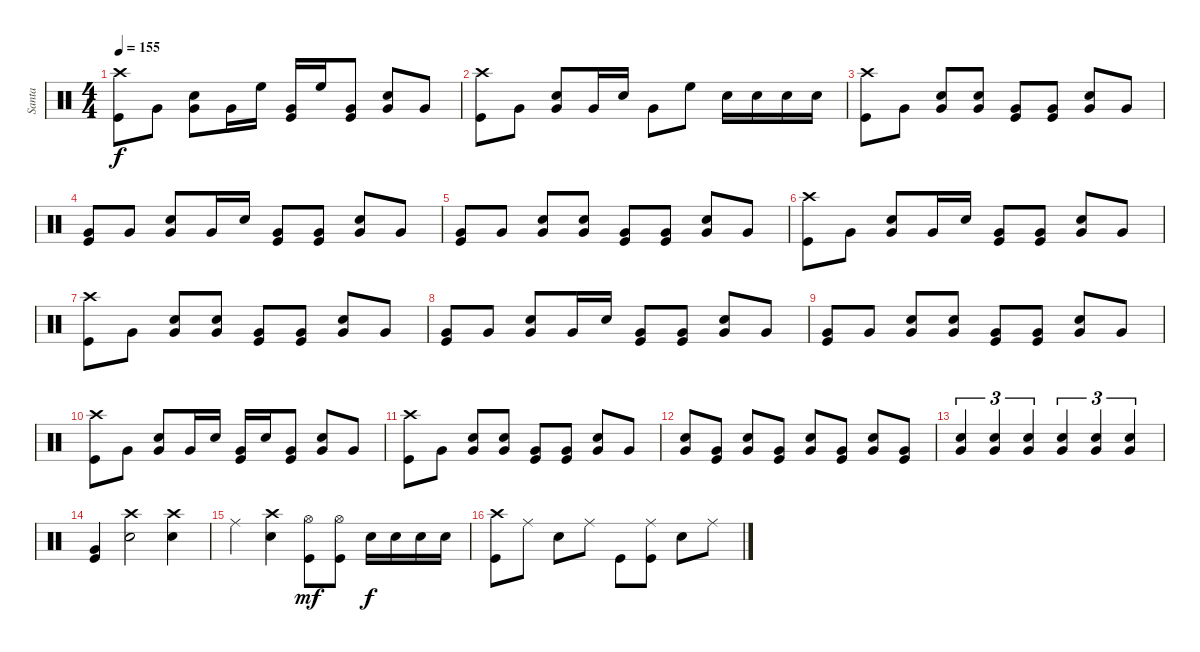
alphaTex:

\track ("Santa" "Santa") {instrument percussion}
\staff {score}
\articulation defaults
\ts (4 4)
\tempo 155
\clef neutral
\ks c
("Kick (hit)" "Crash high (hit)").8{dy f} "Very Low Tom (hit)".8 ("Very Low Tom (hit)" "Snare (hit) 2").8 "Very Low Tom (hit)".16 "High Floor Tom (hit)".16 ("Kick (hit)" "Very Low Tom (hit)").16 "High Floor Tom (hit)".16 ("Kick (hit)" "Very Low Tom (hit)").8 ("Very Low Tom (hit)" "Snare (hit) 2").8 "Very Low Tom (hit)".8 |
("Kick (hit)" "Crash high (hit)").8 "Very Low Tom (hit)".8 ("Very Low Tom (hit)" "Snare (hit) 2").8 "Very Low Tom (hit)".16 "Snare (hit) 2".16 "Very Low Tom (hit)".8 "High Floor Tom (hit)".8 "Snare (hit) 2".16 "Snare (hit) 2".16 "Snare (hit) 2".16 "Snare (hit) 2".16 |
("Kick (hit)" "Crash high (hit)").8 "Very Low Tom (hit)".8 ("Very Low Tom (hit)" "Snare (hit) 2").8 ("Very Low Tom (hit)" "Snare (hit) 2").8 ("Kick (hit)" "Very Low Tom (hit)").8 ("Kick (hit)" "Very Low Tom (hit)").8 ("Very Low Tom (hit)" "Snare (hit) 2").8 "Very Low Tom (hit)".8 |
("Kick (hit)" "Very Low Tom (hit)").8 "Very Low Tom (hit)".8 ("Very Low Tom (hit)" "Snare (hit) 2").8 "Very Low Tom (hit)".16 "Snare (hit) 2".16 ("Kick (hit)" "Very Low Tom (hit)").8 ("Kick (hit)" "Very Low Tom (hit)").8 ("Very Low Tom (hit)" "Snare (hit) 2").8 "Very Low Tom (hit)".8 |
("Kick (hit)" "Very Low Tom (hit)").8 "Very Low Tom (hit)".8 ("Very Low Tom (hit)" "Snare (hit) 2").8 ("Very Low Tom (hit)" "Snare (hit) 2").8 ("Kick (hit)" "Very Low Tom (hit)").8 ("Kick (hit)" "Very Low Tom (hit)").8 ("Very Low Tom (hit)" "Snare (hit) 2").8 "Very Low Tom (hit)".8 |
("Kick (hit)" "Crash high (hit)").8 "Very Low Tom (hit)".8 ("Very Low Tom (hit)" "Snare (hit) 2").8 "Very Low Tom (hit)".16 "Snare (hit) 2".16 ("Kick (hit)" "Very Low Tom (hit)").8 ("Kick (hit)" "Very Low Tom (hit)").8 ("Very Low Tom (hit)" "Snare (hit) 2").8 "Very Low Tom (hit)".8 |
("Kick (hit)" "Crash high (hit)").8 "Very Low Tom (hit)".8 ("Very Low Tom (hit)" "Snare (hit) 2").8 ("Very Low Tom (hit)" "Snare (hit) 2").8 ("Very Low Tom (hit)" "Kick (hit)").8 ("Very Low Tom (hit)" "Kick (hit)").8 ("Very Low Tom (hit)" "Snare (hit) 2").8 "Very Low Tom (hit)".8 |
("Kick (hit)" "Very Low Tom (hit)").8 "Very Low Tom (hit)".8 ("Very Low Tom (hit)" "Snare (hit) 2").8 "Very Low Tom (hit)".16 "Snare (hit) 2".16 ("Kick (hit)" "Very Low Tom (hit)").8 ("Kick (hit)" "Very Low Tom (hit)").8 ("Very Low Tom (hit)" "Snare (hit) 2").8 "Very Low Tom (hit)".8 |
("Kick (hit)" "Very Low Tom (hit)").8 "Very Low Tom (hit)".8 ("Very Low Tom (hit)" "Snare (hit) 2").8 ("Very Low Tom (hit)" "Snare (hit) 2").8 ("Kick (hit)" "Very Low Tom (hit)").8 ("Kick (hit)" "Very Low Tom (hit)").8 ("Very Low Tom (hit)" "Snare (hit) 2").8 "Very Low Tom (hit)".8 |
("Kick (hit)" "Crash high (hit)").8 "Very Low Tom (hit)".8 ("Very Low Tom (hit)" "Snare (hit) 2").8 "Very Low Tom (hit)".16 "Snare (hit) 2".16 ("Kick (hit)" "Very Low Tom (hit)").16 "Snare (hit) 2".16 ("Kick (hit)" "Very Low Tom (hit)").8 ("Very Low Tom (hit)" "Snare (hit) 2").8 "Very Low Tom (hit)".8 |
("Kick (hit)" "Crash high (hit)").8 "Very Low Tom (hit)".8 ("Very Low Tom (hit)" "Snare (hit) 2").8 ("Very Low Tom (hit)" "Snare (hit) 2").8 ("Kick (hit)" "Very Low Tom (hit)").8 ("Kick (hit)" "Very Low Tom (hit)").8 ("Very Low Tom (hit)" "Snare (hit) 2").8 "Very Low Tom (hit)".8 |
("Very Low Tom (hit)" "Snare (hit) 2").8 ("Kick (hit)" "Very Low Tom (hit)").8 ("Very Low Tom (hit)" "Snare (hit) 2").8 ("Kick (hit)" "Very Low Tom (hit)").8 ("Very Low Tom (hit)" "Snare (hit) 2").8 ("Kick (hit)" "Very Low Tom (hit)").8 ("Very Low Tom (hit)" "Snare (hit) 2").8 ("Kick (hit)" "Very Low Tom (hit)").8 |
("Very Low Tom (hit)" "Snare (hit) 2").4{tu (3 2)} ("Very Low Tom (hit)" "Snare (hit) 2").4{tu (3 2)} ("Very Low Tom (hit)" "Snare (hit) 2").4{tu (3 2)} ("Snare (hit) 2" "Very Low Tom (hit)").4{tu (3 2)} ("Very Low Tom (hit)" "Snare (hit) 2").4{tu (3 2)} ("Very Low Tom (hit)" "Snare (hit) 2").4{tu (3 2)} |
("Very Low Tom (hit)" "Kick (hit)").4 ("Snare (hit) 2" "Crash high (hit)").2 ("Crash high (hit)" "Snare (hit) 2").4 |
"Ride (middle)".4 ("Crash high (hit)" "Snare (hit) 2").4 ("Hi-Hat (open)" "Kick (hit)").8{dy mf} ("Hi-Hat (open)" "Kick (hit)").8 "Snare (hit) 2".16{dy f} "Snare (hit) 2".16 "Snare (hit) 2".16 "Snare (hit) 2".16 |
("Kick (hit)" "Crash high (hit)").8 "Ride (middle)".8 "Snare (hit) 2".8 "Ride (middle)".8 "Kick (hit)".8 ("Kick (hit)" "Ride (middle)").8 "Snare (hit) 2".8 "Ride (middle)".8
